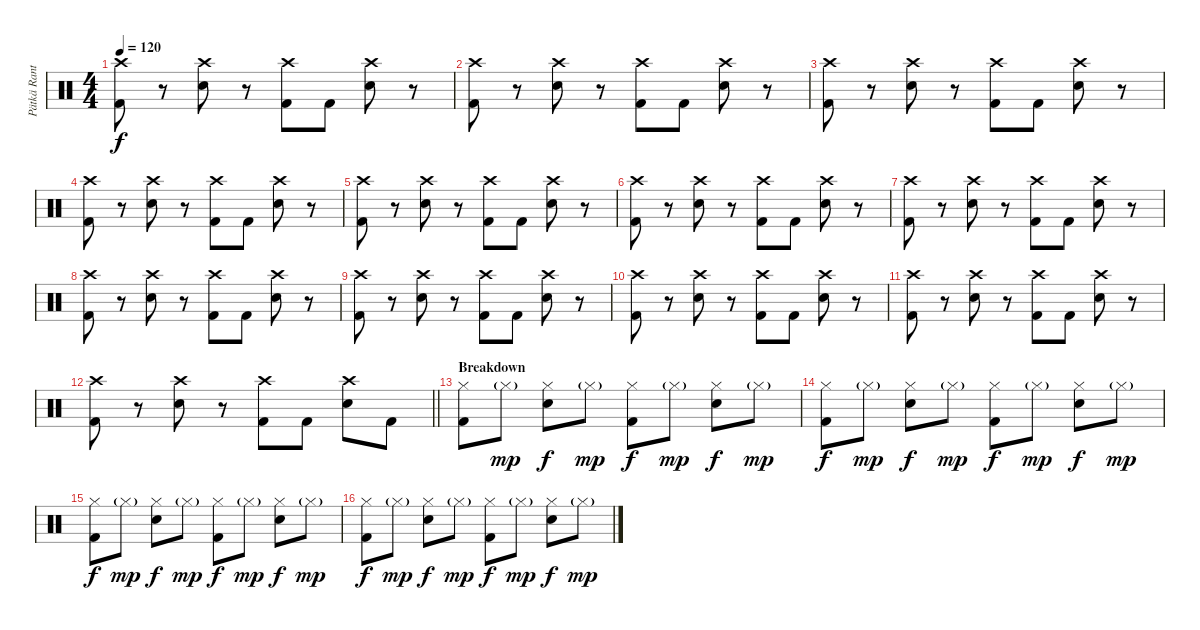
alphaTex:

\track ("Pätkä Rantala (Drums)" "Pätkä Rant") {instrument percussion}
\staff {score}
\articulation defaults
\ts (4 4)
\tempo 120
\clef neutral
\ks c
("Crash high (hit)" "Kick (hit) 2").8{dy f} r.8 ("Crash high (hit)" "Snare (hit) 2").8 r.8 ("Crash high (hit)" "Kick (hit) 2").8 "Kick (hit) 2".8 ("Crash high (hit)" "Snare (hit) 2").8 r.8 |
("Crash high (hit)" "Kick (hit) 2").8 r.8 ("Crash high (hit)" "Snare (hit) 2").8 r.8 ("Crash high (hit)" "Kick (hit) 2").8 "Kick (hit) 2".8 ("Crash high (hit)" "Snare (hit) 2").8 r.8 |
("Crash high (hit)" "Kick (hit) 2").8 r.8 ("Crash high (hit)" "Snare (hit) 2").8 r.8 ("Crash high (hit)" "Kick (hit) 2").8 "Kick (hit) 2".8 ("Crash high (hit)" "Snare (hit) 2").8 r.8 |
("Crash high (hit)" "Kick (hit) 2").8 r.8 ("Crash high (hit)" "Snare (hit) 2").8 r.8 ("Crash high (hit)" "Kick (hit) 2").8 "Kick (hit) 2".8 ("Crash high (hit)" "Snare (hit) 2").8 r.8 |
("Crash high (hit)" "Kick (hit) 2").8 r.8 ("Crash high (hit)" "Snare (hit) 2").8 r.8 ("Crash high (hit)" "Kick (hit) 2").8 "Kick (hit) 2".8 ("Crash high (hit)" "Snare (hit) 2").8 r.8 |
("Crash high (hit)" "Kick (hit) 2").8 r.8 ("Crash high (hit)" "Snare (hit) 2").8 r.8 ("Crash high (hit)" "Kick (hit) 2").8 "Kick (hit) 2".8 ("Crash high (hit)" "Snare (hit) 2").8 r.8 |
("Crash high (hit)" "Kick (hit) 2").8 r.8 ("Crash high (hit)" "Snare (hit) 2").8 r.8 ("Crash high (hit)" "Kick (hit) 2").8 "Kick (hit) 2".8 ("Crash high (hit)" "Snare (hit) 2").8 r.8 |
("Crash high (hit)" "Kick (hit) 2").8 r.8 ("Crash high (hit)" "Snare (hit) 2").8 r.8 ("Crash high (hit)" "Kick (hit) 2").8 "Kick (hit) 2".8 ("Crash high (hit)" "Snare (hit) 2").8 r.8 |
("Crash high (hit)" "Kick (hit) 2").8 r.8 ("Crash high (hit)" "Snare (hit) 2").8 r.8 ("Crash high (hit)" "Kick (hit) 2").8 "Kick (hit) 2".8 ("Crash high (hit)" "Snare (hit) 2").8 r.8 |
("Crash high (hit)" "Kick (hit) 2").8 r.8 ("Crash high (hit)" "Snare (hit) 2").8 r.8 ("Crash high (hit)" "Kick (hit) 2").8 "Kick (hit) 2".8 ("Crash high (hit)" "Snare (hit) 2").8 r.8 |
("Crash high (hit)" "Kick (hit) 2").8 r.8 ("Crash high (hit)" "Snare (hit) 2").8 r.8 ("Crash high (hit)" "Kick (hit) 2").8 "Kick (hit) 2".8 ("Crash high (hit)" "Snare (hit) 2").8 r.8 |
\barLineRight lightlight
("Crash high (hit)" "Kick (hit) 2").8 r.8 ("Crash high (hit)" "Snare (hit) 2").8 r.8 ("Crash high (hit)" "Kick (hit) 2").8 "Kick (hit) 2".8 ("Crash high (hit)" "Snare (hit) 2").8 "Kick (hit) 2".8 |
\section ("" "Breakdown")
("Hi-Hat (closed)" "Kick (hit) 2").8 "Hi-Hat (closed)"{g}.8{dy mp} ("Hi-Hat (closed)" "Snare (hit) 2").8{dy f} "Hi-Hat (closed)"{g}.8{dy mp} ("Hi-Hat (closed)" "Kick (hit) 2").8{dy f} "Hi-Hat (closed)"{g}.8{dy mp} ("Hi-Hat (closed)" "Snare (hit) 2").8{dy f} "Hi-Hat (closed)"{g}.8{dy mp} |
("Hi-Hat (closed)" "Kick (hit) 2").8{dy f} "Hi-Hat (closed)"{g}.8{dy mp} ("Hi-Hat (closed)" "Snare (hit) 2").8{dy f} "Hi-Hat (closed)"{g}.8{dy mp} ("Hi-Hat (closed)" "Kick (hit) 2").8{dy f} "Hi-Hat (closed)"{g}.8{dy mp} ("Hi-Hat (closed)" "Snare (hit) 2").8{dy f} "Hi-Hat (closed)"{g}.8{dy mp} |
("Hi-Hat (closed)" "Kick (hit) 2").8{dy f} "Hi-Hat (closed)"{g}.8{dy mp} ("Hi-Hat (closed)" "Snare (hit) 2").8{dy f} "Hi-Hat (closed)"{g}.8{dy mp} ("Hi-Hat (closed)" "Kick (hit) 2").8{dy f} "Hi-Hat (closed)"{g}.8{dy mp} ("Hi-Hat (closed)" "Snare (hit) 2").8{dy f} "Hi-Hat (closed)"{g}.8{dy mp} |
("Hi-Hat (closed)" "Kick (hit) 2").8{dy f} "Hi-Hat (closed)"{g}.8{dy mp} ("Hi-Hat (closed)" "Snare (hit) 2").8{dy f} "Hi-Hat (closed)"{g}.8{dy mp} ("Hi-Hat (closed)" "Kick (hit) 2").8{dy f} "Hi-Hat (closed)"{g}.8{dy mp} ("Hi-Hat (closed)" "Snare (hit) 2").8{dy f} "Hi-Hat (closed)"{g}.8{dy mp}
